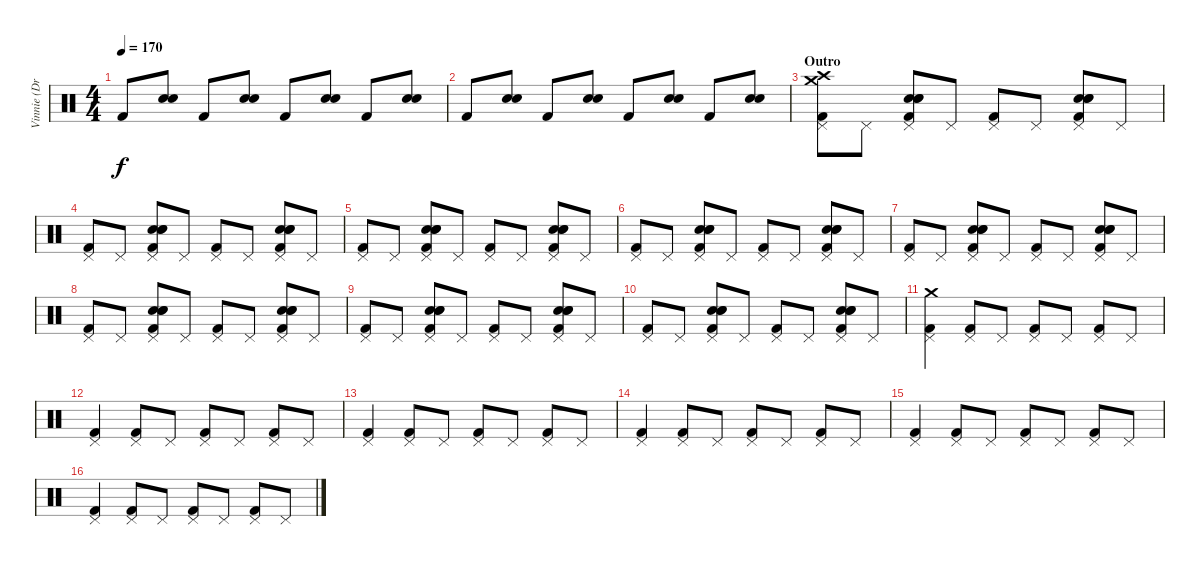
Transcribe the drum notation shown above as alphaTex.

\track ("Vinnie (Drums)" "Vinnie (Dr") {instrument percussion}
\staff {score}
\articulation defaults
\ts (4 4)
\tempo 170
\clef neutral
\ks c "Kick (hit) 2".8{dy f}
("Snare (hit) 2" "Electric Snare (hit)").8 "Kick (hit) 2".8 ("Snare (hit) 2" "Electric Snare (hit)").8 "Kick (hit) 2".8 ("Snare (hit) 2" "Electric Snare (hit)").8 "Kick (hit) 2".8 ("Snare (hit) 2" "Electric Snare (hit)").8 |
"Kick (hit) 2".8 ("Snare (hit) 2" "Electric Snare (hit)").8 "Kick (hit) 2".8 ("Snare (hit) 2" "Electric Snare (hit)").8 "Kick (hit) 2".8 ("Snare (hit) 2" "Electric Snare (hit)").8 "Kick (hit) 2".8 ("Snare (hit) 2" "Electric Snare (hit)").8 |
\section ("" "Outro")
("Kick (hit) 2" "Pedal Hi-Hat (hit)" "Crash medium (hit)" "Crash high (hit)").8 "Pedal Hi-Hat (hit)".8 ("Kick (hit) 2" "Snare (hit) 2" "Pedal Hi-Hat (hit)" "Electric Snare (hit)" "Snare (hit) 2").8 "Pedal Hi-Hat (hit)".8 ("Kick (hit) 2" "Pedal Hi-Hat (hit)").8 "Pedal Hi-Hat (hit)".8 ("Kick (hit) 2" "Snare (hit) 2" "Pedal Hi-Hat (hit)" "Electric Snare (hit)" "Snare (hit) 2").8 "Pedal Hi-Hat (hit)".8 |
("Kick (hit) 2" "Pedal Hi-Hat (hit)").8 "Pedal Hi-Hat (hit)".8 ("Kick (hit) 2" "Snare (hit) 2" "Pedal Hi-Hat (hit)" "Electric Snare (hit)" "Snare (hit) 2").8 "Pedal Hi-Hat (hit)".8 ("Kick (hit) 2" "Pedal Hi-Hat (hit)").8 "Pedal Hi-Hat (hit)".8 ("Kick (hit) 2" "Snare (hit) 2" "Pedal Hi-Hat (hit)" "Electric Snare (hit)" "Snare (hit) 2").8 "Pedal Hi-Hat (hit)".8 |
("Kick (hit) 2" "Pedal Hi-Hat (hit)").8 "Pedal Hi-Hat (hit)".8 ("Kick (hit) 2" "Snare (hit) 2" "Pedal Hi-Hat (hit)" "Electric Snare (hit)" "Snare (hit) 2").8 "Pedal Hi-Hat (hit)".8 ("Kick (hit) 2" "Pedal Hi-Hat (hit)").8 "Pedal Hi-Hat (hit)".8 ("Kick (hit) 2" "Snare (hit) 2" "Pedal Hi-Hat (hit)" "Electric Snare (hit)" "Snare (hit) 2").8 "Pedal Hi-Hat (hit)".8 |
("Kick (hit) 2" "Pedal Hi-Hat (hit)").8 "Pedal Hi-Hat (hit)".8 ("Kick (hit) 2" "Snare (hit) 2" "Pedal Hi-Hat (hit)" "Electric Snare (hit)" "Snare (hit) 2").8 "Pedal Hi-Hat (hit)".8 ("Kick (hit) 2" "Pedal Hi-Hat (hit)").8 "Pedal Hi-Hat (hit)".8 ("Kick (hit) 2" "Snare (hit) 2" "Pedal Hi-Hat (hit)" "Electric Snare (hit)" "Snare (hit) 2").8 "Pedal Hi-Hat (hit)".8 |
("Kick (hit) 2" "Pedal Hi-Hat (hit)").8 "Pedal Hi-Hat (hit)".8 ("Kick (hit) 2" "Snare (hit) 2" "Pedal Hi-Hat (hit)" "Electric Snare (hit)" "Snare (hit) 2").8 "Pedal Hi-Hat (hit)".8 ("Kick (hit) 2" "Pedal Hi-Hat (hit)").8 "Pedal Hi-Hat (hit)".8 ("Kick (hit) 2" "Snare (hit) 2" "Pedal Hi-Hat (hit)" "Electric Snare (hit)" "Snare (hit) 2").8 "Pedal Hi-Hat (hit)".8 |
("Kick (hit) 2" "Pedal Hi-Hat (hit)").8 "Pedal Hi-Hat (hit)".8 ("Kick (hit) 2" "Snare (hit) 2" "Pedal Hi-Hat (hit)" "Electric Snare (hit)" "Snare (hit) 2").8 "Pedal Hi-Hat (hit)".8 ("Kick (hit) 2" "Pedal Hi-Hat (hit)").8 "Pedal Hi-Hat (hit)".8 ("Kick (hit) 2" "Snare (hit) 2" "Pedal Hi-Hat (hit)" "Electric Snare (hit)" "Snare (hit) 2").8 "Pedal Hi-Hat (hit)".8 |
("Kick (hit) 2" "Pedal Hi-Hat (hit)").8 "Pedal Hi-Hat (hit)".8 ("Kick (hit) 2" "Snare (hit) 2" "Pedal Hi-Hat (hit)" "Electric Snare (hit)" "Snare (hit) 2").8 "Pedal Hi-Hat (hit)".8 ("Kick (hit) 2" "Pedal Hi-Hat (hit)").8 "Pedal Hi-Hat (hit)".8 ("Kick (hit) 2" "Snare (hit) 2" "Pedal Hi-Hat (hit)" "Electric Snare (hit)" "Snare (hit) 2").8 "Pedal Hi-Hat (hit)".8 |
("Kick (hit) 2" "Pedal Hi-Hat (hit)").8 "Pedal Hi-Hat (hit)".8 ("Kick (hit) 2" "Snare (hit) 2" "Pedal Hi-Hat (hit)" "Electric Snare (hit)" "Snare (hit) 2").8 "Pedal Hi-Hat (hit)".8 ("Kick (hit) 2" "Pedal Hi-Hat (hit)").8 "Pedal Hi-Hat (hit)".8 ("Kick (hit) 2" "Snare (hit) 2" "Pedal Hi-Hat (hit)" "Electric Snare (hit)" "Snare (hit) 2").8 "Pedal Hi-Hat (hit)".8 |
("Pedal Hi-Hat (hit)" "Kick (hit) 2" "Crash medium (hit)").4 ("Pedal Hi-Hat (hit)" "Kick (hit) 2").8 "Pedal Hi-Hat (hit)".8 ("Pedal Hi-Hat (hit)" "Kick (hit) 2").8 "Pedal Hi-Hat (hit)".8 ("Pedal Hi-Hat (hit)" "Kick (hit) 2").8 "Pedal Hi-Hat (hit)".8 |
("Pedal Hi-Hat (hit)" "Kick (hit) 2").4 ("Pedal Hi-Hat (hit)" "Kick (hit) 2").8 "Pedal Hi-Hat (hit)".8 ("Pedal Hi-Hat (hit)" "Kick (hit) 2").8 "Pedal Hi-Hat (hit)".8 ("Pedal Hi-Hat (hit)" "Kick (hit) 2").8 "Pedal Hi-Hat (hit)".8 |
("Pedal Hi-Hat (hit)" "Kick (hit) 2").4 ("Pedal Hi-Hat (hit)" "Kick (hit) 2").8 "Pedal Hi-Hat (hit)".8 ("Pedal Hi-Hat (hit)" "Kick (hit) 2").8 "Pedal Hi-Hat (hit)".8 ("Pedal Hi-Hat (hit)" "Kick (hit) 2").8 "Pedal Hi-Hat (hit)".8 |
("Pedal Hi-Hat (hit)" "Kick (hit) 2").4 ("Pedal Hi-Hat (hit)" "Kick (hit) 2").8 "Pedal Hi-Hat (hit)".8 ("Pedal Hi-Hat (hit)" "Kick (hit) 2").8 "Pedal Hi-Hat (hit)".8 ("Pedal Hi-Hat (hit)" "Kick (hit) 2").8 "Pedal Hi-Hat (hit)".8 |
("Pedal Hi-Hat (hit)" "Kick (hit) 2").4 ("Pedal Hi-Hat (hit)" "Kick (hit) 2").8 "Pedal Hi-Hat (hit)".8 ("Pedal Hi-Hat (hit)" "Kick (hit) 2").8 "Pedal Hi-Hat (hit)".8 ("Pedal Hi-Hat (hit)" "Kick (hit) 2").8 "Pedal Hi-Hat (hit)".8 |
("Pedal Hi-Hat (hit)" "Kick (hit) 2").4 ("Pedal Hi-Hat (hit)" "Kick (hit) 2").8 "Pedal Hi-Hat (hit)".8 ("Pedal Hi-Hat (hit)" "Kick (hit) 2").8 "Pedal Hi-Hat (hit)".8 ("Pedal Hi-Hat (hit)" "Kick (hit) 2").8 "Pedal Hi-Hat (hit)".8
